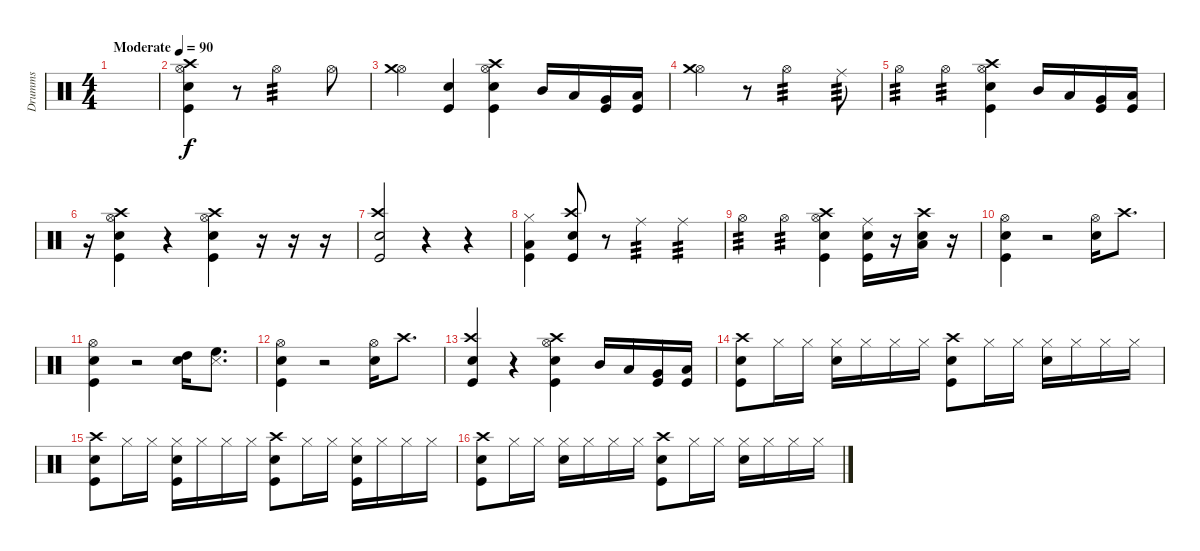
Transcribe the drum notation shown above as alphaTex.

\track ("Drumms" "Drumms") {instrument percussion}
\staff {score}
\articulation defaults
\ts (4 4)
\tempo (90 "Moderate")
\clef neutral
\ks c
|
("Hi-Hat (open)" "Snare (hit) 2" "Crash high (hit)" "Kick (hit)").4 r.8 "Hi-Hat (open)".2{tp 3} "Hi-Hat (open)".8 |
("Hi-Hat (open)" "Crash medium (hit)").4 ("Snare (hit) 2" "Kick (hit)").4 ("Hi-Hat (open)" "Snare (hit) 2" "Crash high (hit)" "Kick (hit)").4 "Mid Tom (hit)".16 "Low Tom (hit)".16 ("Very Low Tom (hit)" "Kick (hit)").16 ("Low Floor Tom (hit)" "Kick (hit)").16 |
("Hi-Hat (open)" "Crash medium (hit)").4 r.8 "Hi-Hat (open)".2{tp 3} "Ride (middle)".8{tp 3} |
"Hi-Hat (open)".4{tp 3} "Hi-Hat (open)".4{tp 3} ("Hi-Hat (open)" "Snare (hit) 2" "Crash high (hit)" "Kick (hit)").4 "Mid Tom (hit)".16 "Low Tom (hit)".16 ("Very Low Tom (hit)" "Kick (hit)").16 ("Low Floor Tom (hit)" "Kick (hit)").16 |
r.16 ("Hi-Hat (open)" "Crash high (hit)" "Snare (hit) 2" "Kick (hit)").4 r.4 ("Hi-Hat (open)" "Crash high (hit)" "Snare (hit) 2" "Kick (hit)").4 r.16 r.16 r.16 |
("Snare (hit) 2" "Kick (hit)" "Crash high (hit)").2 r.4 r.4 |
("Low Tom (hit)" "Hi-Hat (closed)" "Kick (hit)").4 ("Snare (hit) 2" "Crash high (hit)" "Kick (hit)").8 r.8 "Ride (middle)".4{tp 3} "Ride (middle)".4{tp 3} |
"Hi-Hat (open)".4{tp 3} "Hi-Hat (open)".4{tp 3} ("Hi-Hat (open)" "Snare (hit) 2" "Crash high (hit)" "Kick (hit)").4 ("Ride (middle)" "Snare (hit) 2" "Kick (hit)").16 r.16 ("Crash high (hit)" "Snare (hit) 2" "Low Floor Tom (hit)").16 r.16 |
("Hi-Hat (open)" "Snare (hit) 2" "Kick (hit)").4 r.2 ("Hi-Hat (open)" "Snare (hit) 2").16 "Crash high (hit)".8{d} |
("Hi-Hat (open)" "Snare (hit) 2" "Kick (hit)").4 r.2 ("Snare (hit) 2" "High Tom (hit)").16 ("High Floor Tom (hit)" "Snare (side stick) 3").8{d} |
("Hi-Hat (open)" "Snare (hit) 2" "Kick (hit)").4 r.2 ("Hi-Hat (open)" "Snare (hit) 2").16 "Crash high (hit)".8{d} |
("Snare (hit) 2" "Kick (hit)" "Crash high (hit)").4 r.4 ("Hi-Hat (open)" "Snare (hit) 2" "Crash high (hit)" "Kick (hit)").4 "Mid Tom (hit)".16 "Low Tom (hit)".16 ("Very Low Tom (hit)" "Kick (hit)").16 ("Low Floor Tom (hit)" "Kick (hit)").16 |
("Crash high (hit)" "Snare (hit) 2" "Kick (hit)").8 "Hi-Hat (closed)".16 "Hi-Hat (closed)".16 ("Hi-Hat (closed)" "Snare (hit) 2").16 "Hi-Hat (closed)".16 "Hi-Hat (closed)".16 "Hi-Hat (closed)".16 ("Crash high (hit)" "Snare (hit) 2" "Kick (hit)").8 "Hi-Hat (closed)".16 "Hi-Hat (closed)".16 ("Hi-Hat (closed)" "Snare (hit) 2").16 "Hi-Hat (closed)".16 "Hi-Hat (closed)".16 "Hi-Hat (closed)".16 |
("Crash high (hit)" "Snare (hit) 2" "Kick (hit)").8 "Hi-Hat (closed)".16 "Hi-Hat (closed)".16 ("Hi-Hat (closed)" "Snare (hit) 2" "Kick (hit)").16 "Hi-Hat (closed)".16 "Hi-Hat (closed)".16 "Hi-Hat (closed)".16 ("Crash high (hit)" "Snare (hit) 2" "Kick (hit)").8 "Hi-Hat (closed)".16 "Hi-Hat (closed)".16 ("Hi-Hat (closed)" "Snare (hit) 2" "Kick (hit)").16 "Hi-Hat (closed)".16 "Hi-Hat (closed)".16 "Hi-Hat (closed)".16 |
("Crash high (hit)" "Snare (hit) 2" "Kick (hit)").8 "Hi-Hat (closed)".16 "Hi-Hat (closed)".16 ("Hi-Hat (closed)" "Snare (hit) 2").16 "Hi-Hat (closed)".16 "Hi-Hat (closed)".16 "Hi-Hat (closed)".16 ("Crash high (hit)" "Snare (hit) 2" "Kick (hit)").8 "Hi-Hat (closed)".16 "Hi-Hat (closed)".16 ("Hi-Hat (closed)" "Snare (hit) 2").16 "Hi-Hat (closed)".16 "Hi-Hat (closed)".16 "Hi-Hat (closed)".16
